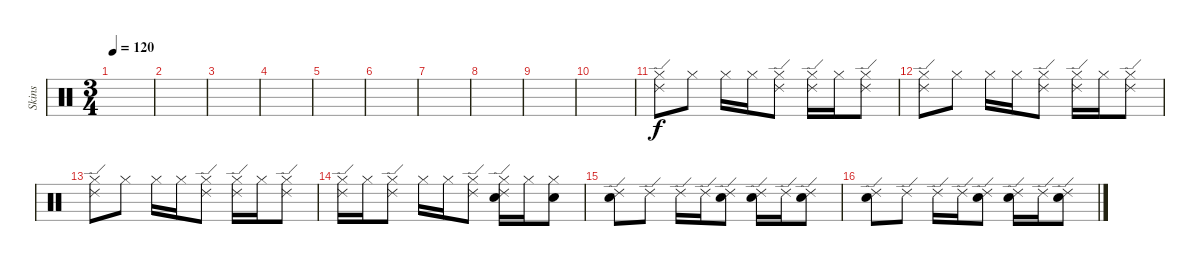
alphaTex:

\track ("Skins" "Skins") {instrument percussion}
\staff {score}
\articulation defaults
\ts (3 4)
\tempo 120
\clef neutral
\ks c
|
|
|
|
|
|
|
|
|
|
("Ride (edge) 2" "Hi-Hat (closed)").8 "Hi-Hat (closed)".8 "Hi-Hat (closed)".16 "Hi-Hat (closed)".16 ("Ride (edge) 2" "Hi-Hat (closed)").8 ("Ride (edge) 2" "Hi-Hat (closed)").16 "Hi-Hat (closed)".16 ("Ride (edge) 2" "Hi-Hat (closed)").8 |
("Ride (edge) 2" "Hi-Hat (closed)").8 "Hi-Hat (closed)".8 "Hi-Hat (closed)".16 "Hi-Hat (closed)".16 ("Ride (edge) 2" "Hi-Hat (closed)").8 ("Ride (edge) 2" "Hi-Hat (closed)").16 "Hi-Hat (closed)".16 ("Ride (edge) 2" "Hi-Hat (closed)").8 |
("Ride (edge) 2" "Hi-Hat (closed)").8 "Hi-Hat (closed)".8 "Hi-Hat (closed)".16 "Hi-Hat (closed)".16 ("Ride (edge) 2" "Hi-Hat (closed)").8 ("Ride (edge) 2" "Hi-Hat (closed)").16 "Hi-Hat (closed)".16 ("Ride (edge) 2" "Hi-Hat (closed)").8 |
("Ride (edge) 2" "Hi-Hat (closed)").16 "Hi-Hat (closed)".16 ("Ride (edge) 2" "Hi-Hat (closed)").8 "Hi-Hat (closed)".16 "Hi-Hat (closed)".16 ("Ride (edge) 2" "Hi-Hat (closed)").8 ("Ride (edge) 2" "Hi-Hat (closed)" "Electric Snare (hit)").16 "Hi-Hat (closed)".16 ("Hi-Hat (closed)" "Electric Snare (hit)").8 |
("Snare (hit) 2" "Ride (edge) 2").8 "Ride (edge) 2".8 "Ride (edge) 2".16 "Ride (edge) 2".16 ("Snare (hit) 2" "Ride (edge) 2").8 ("Snare (hit) 2" "Ride (edge) 2").16 "Ride (edge) 2".16 ("Snare (hit) 2" "Ride (edge) 2").8 |
("Snare (hit) 2" "Ride (edge) 2").8 "Ride (edge) 2".8 "Ride (edge) 2".16 "Ride (edge) 2".16 ("Snare (hit) 2" "Ride (edge) 2").8 ("Snare (hit) 2" "Ride (edge) 2").16 "Ride (edge) 2".16 ("Snare (hit) 2" "Ride (edge) 2").8
